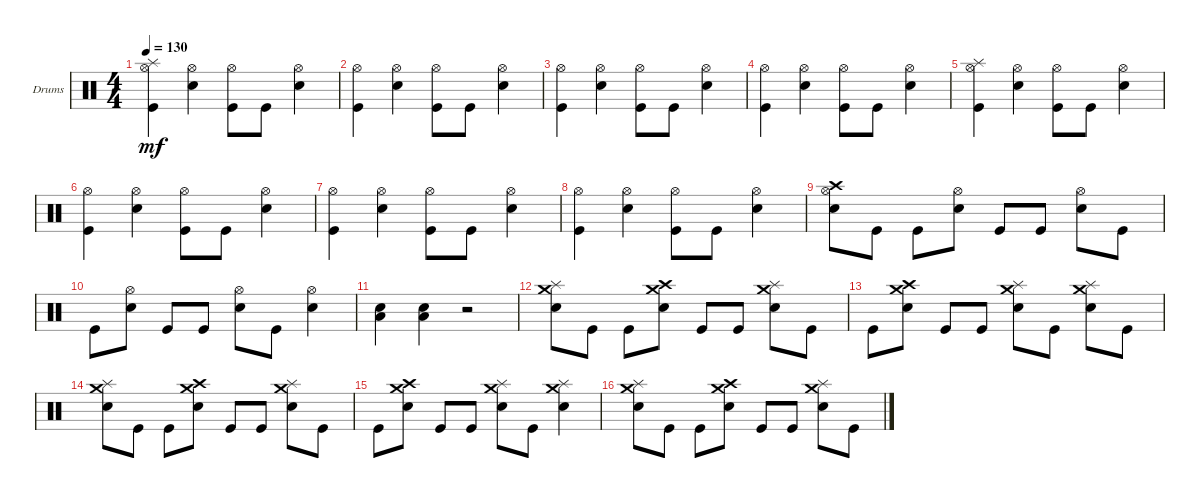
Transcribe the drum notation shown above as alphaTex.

\defaultSystemsLayout 4
\bracketExtendMode groupsimilarinstruments
\firstSystemTrackNameOrientation horizontal
\otherSystemsTrackNameOrientation horizontal
\track ("Drumkit" "Drums") {instrument percussion}
\staff {score}
\articulation defaults
\ts (4 4)
\tempo 130
\clef neutral
\ks c
("Splash (hit)" "Hi-Hat (open)" "Kick (hit)").4{dy mf} ("Snare (hit) 2" "Hi-Hat (open)").4 ("Kick (hit)" "Hi-Hat (open)").8 "Kick (hit)".8 ("Snare (hit) 2" "Hi-Hat (open)").4 |
("Hi-Hat (open)" "Kick (hit)").4 ("Snare (hit) 2" "Hi-Hat (open)").4 ("Kick (hit)" "Hi-Hat (open)").8 "Kick (hit)".8 ("Snare (hit) 2" "Hi-Hat (open)").4 |
("Hi-Hat (open)" "Kick (hit)").4 ("Snare (hit) 2" "Hi-Hat (open)").4 ("Kick (hit)" "Hi-Hat (open)").8 "Kick (hit)".8 ("Snare (hit) 2" "Hi-Hat (open)").4 |
("Hi-Hat (open)" "Kick (hit)").4 ("Snare (hit) 2" "Hi-Hat (open)").4 ("Kick (hit)" "Hi-Hat (open)").8 "Kick (hit)".8 ("Snare (hit) 2" "Hi-Hat (open)").4 |
("Splash (hit)" "Hi-Hat (open)" "Kick (hit)").4 ("Snare (hit) 2" "Hi-Hat (open)").4 ("Kick (hit)" "Hi-Hat (open)").8 "Kick (hit)".8 ("Snare (hit) 2" "Hi-Hat (open)").4 |
("Hi-Hat (open)" "Kick (hit)").4 ("Snare (hit) 2" "Hi-Hat (open)").4 ("Kick (hit)" "Hi-Hat (open)").8 "Kick (hit)".8 ("Snare (hit) 2" "Hi-Hat (open)").4 |
("Hi-Hat (open)" "Kick (hit)").4 ("Snare (hit) 2" "Hi-Hat (open)").4 ("Kick (hit)" "Hi-Hat (open)").8 "Kick (hit)".8 ("Snare (hit) 2" "Hi-Hat (open)").4 |
("Hi-Hat (open)" "Kick (hit)").4 ("Snare (hit) 2" "Hi-Hat (open)").4 ("Kick (hit)" "Hi-Hat (open)").8 "Kick (hit)".8 ("Snare (hit) 2" "Hi-Hat (open)").4 |
("Snare (hit) 2" "Hi-Hat (open)" "Crash high (hit)").8 "Kick (hit)".8 "Kick (hit)".8 ("Snare (hit) 2" "Hi-Hat (open)").8 "Kick (hit)".8 "Kick (hit)".8 ("Snare (hit) 2" "Hi-Hat (open)").8 "Kick (hit)".8 |
"Kick (hit)".8 ("Snare (hit) 2" "Hi-Hat (open)").8 "Kick (hit)".8 "Kick (hit)".8 ("Snare (hit) 2" "Hi-Hat (open)").8 "Kick (hit)".8 ("Snare (hit) 2" "Hi-Hat (open)").4 |
("Snare (hit) 2" "Low Tom (hit)").4 ("Snare (hit) 2" "Low Tom (hit)").4 r.2 |
("Snare (hit) 2" "Splash (hit)" "Crash medium (hit)").8 "Kick (hit)".8 "Kick (hit)".8 ("Snare (hit) 2" "Crash high (hit)" "Crash medium (hit)").8 "Kick (hit)".8 "Kick (hit)".8 ("Snare (hit) 2" "Splash (hit)" "Crash medium (hit)").8 "Kick (hit)".8 |
"Kick (hit)".8 ("Snare (hit) 2" "Crash high (hit)" "Crash medium (hit)").8 "Kick (hit)".8 "Kick (hit)".8 ("Snare (hit) 2" "Splash (hit)" "Crash medium (hit)").8 "Kick (hit)".8 ("Snare (hit) 2" "Splash (hit)" "Crash medium (hit)").8 "Kick (hit)".8 |
("Snare (hit) 2" "Splash (hit)" "Crash medium (hit)").8 "Kick (hit)".8 "Kick (hit)".8 ("Snare (hit) 2" "Crash high (hit)" "Crash medium (hit)").8 "Kick (hit)".8 "Kick (hit)".8 ("Snare (hit) 2" "Splash (hit)" "Crash medium (hit)").8 "Kick (hit)".8 |
"Kick (hit)".8 ("Snare (hit) 2" "Crash high (hit)" "Crash medium (hit)").8 "Kick (hit)".8 "Kick (hit)".8 ("Snare (hit) 2" "Splash (hit)" "Crash medium (hit)").8 "Kick (hit)".8 ("Snare (hit) 2" "Splash (hit)" "Crash medium (hit)").4 |
("Snare (hit) 2" "Splash (hit)" "Crash medium (hit)").8 "Kick (hit)".8 "Kick (hit)".8 ("Snare (hit) 2" "Crash high (hit)" "Crash medium (hit)").8 "Kick (hit)".8 "Kick (hit)".8 ("Snare (hit) 2" "Splash (hit)" "Crash medium (hit)").8 "Kick (hit)".8
